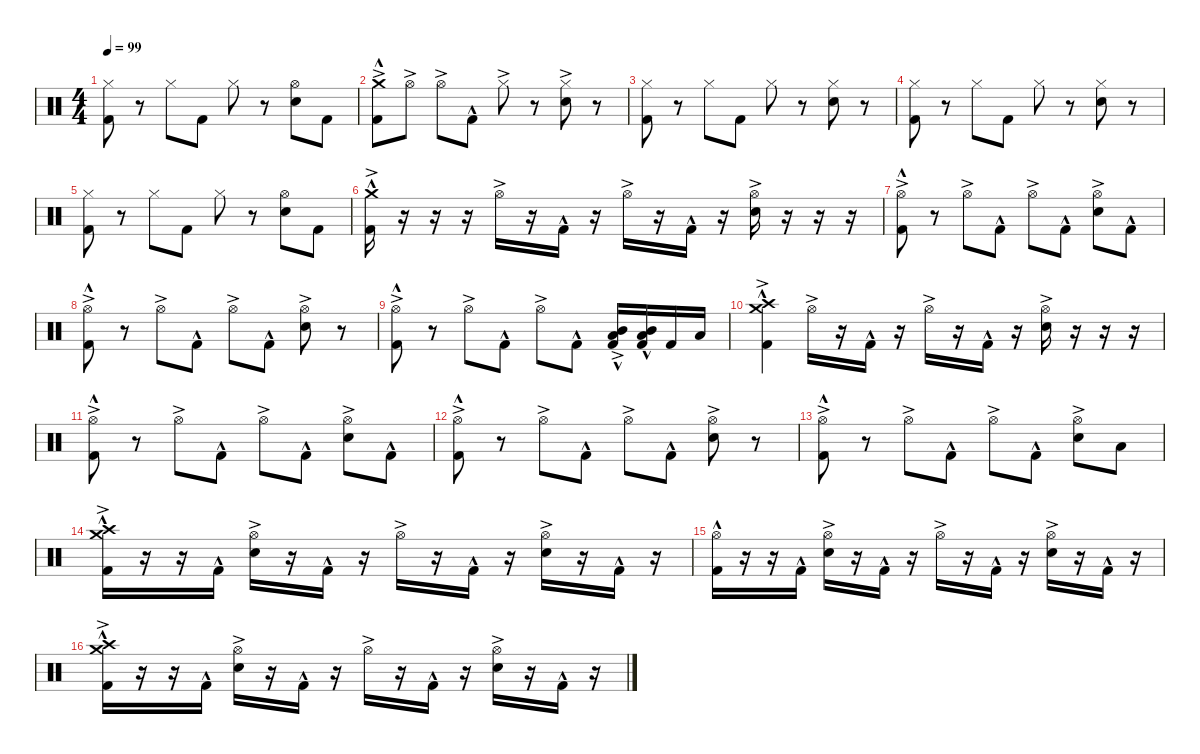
\defaultSystemsLayout 4
\hideDynamics
\bracketExtendMode nobrackets
\singleTrackTrackNamePolicy hidden
\multiTrackTrackNamePolicy hidden
\firstSystemTrackNameMode fullname
\firstSystemTrackNameOrientation horizontal
\otherSystemsTrackNameOrientation horizontal
\track ("Percussion" "drm.") {instrument percussion}
\staff {score}
\articulation defaults
\ts (4 4)
\tempo 99
\clef neutral
\ks c
("Hi-Hat (closed)" "Kick (hit) 2").8{dy f beam Down} r.8{beam Down} "Hi-Hat (closed)".8{beam Down} "Kick (hit) 2".8{beam Down} "Hi-Hat (closed)".8{beam Down} r.8{beam Down} ("Hi-Hat (open)" "Snare (hit) 2").8{beam Down} "Kick (hit) 2".8{beam Down} |
("Crash medium (hit)"{ac} "Kick (hit) 2"{hac}).8{beam Down} "Hi-Hat (open)"{ac}.8{beam Down} "Hi-Hat (open)"{ac}.8{beam Down} "Kick (hit) 2"{hac}.8{beam Down} "Hi-Hat (closed)"{ac}.8{beam Down} r.8{beam Down} ("Hi-Hat (closed)"{ac} "Snare (hit) 2"{ac}).8{beam Down} r.8{beam Down} |
("Hi-Hat (closed)" "Kick (hit) 2").8{beam Down} r.8{beam Down} "Hi-Hat (closed)".8{beam Down} "Kick (hit) 2".8{beam Down} "Hi-Hat (closed)".8{beam Down} r.8{beam Down} ("Hi-Hat (closed)" "Snare (hit) 2").8{beam Down} r.8{beam Down} |
("Hi-Hat (closed)" "Kick (hit) 2").8{beam Down} r.8{beam Down} "Hi-Hat (closed)".8{beam Down} "Kick (hit) 2".8{beam Down} "Hi-Hat (closed)".8{beam Down} r.8{beam Down} ("Hi-Hat (closed)" "Snare (hit) 2").8{beam Down} r.8{beam Down} |
("Hi-Hat (closed)" "Kick (hit) 2").8{beam Down} r.8{beam Down} "Hi-Hat (closed)".8{beam Down} "Kick (hit) 2".8{beam Down} "Hi-Hat (closed)".8{beam Down} r.8{beam Down} ("Hi-Hat (open)" "Snare (hit) 2").8{beam Down} "Kick (hit) 2".8{beam Down} |
("Crash medium (hit)"{hac} "Kick (hit) 2"{ac}).16{beam Down} r.16{beam Down} r.16{beam Down} r.16{beam Down} "Hi-Hat (open)"{ac}.16{beam Down} r.16{beam Down} "Kick (hit) 2"{hac}.16{beam Down} r.16{beam Down} "Hi-Hat (open)"{ac}.16{beam Down} r.16{beam Down} "Kick (hit) 2"{hac}.16{beam Down} r.16{beam Down} ("Hi-Hat (open)"{ac} "Snare (hit) 2"{ac}).16{beam Down} r.16{beam Down} r.16{beam Down} r.16{beam Down} |
("Hi-Hat (open)"{ac} "Kick (hit) 2"{hac}).8{beam Down} r.8{beam Down} "Hi-Hat (open)"{ac}.8{beam Down} "Kick (hit) 2"{hac}.8{beam Down} "Hi-Hat (open)"{ac}.8{beam Down} "Kick (hit) 2"{hac}.8{beam Down} ("Hi-Hat (open)"{ac} "Snare (hit) 2"{ac}).8{beam Down} "Kick (hit) 2"{hac}.8{beam Down} |
("Hi-Hat (open)"{ac} "Kick (hit) 2"{hac}).8{beam Down} r.8{beam Down} "Hi-Hat (open)"{ac}.8{beam Down} "Kick (hit) 2"{hac}.8{beam Down} "Hi-Hat (open)"{ac}.8{beam Down} "Kick (hit) 2"{hac}.8{beam Down} ("Hi-Hat (open)"{ac} "Snare (hit) 2"{ac}).8{beam Down} r.8{beam Down} |
("Hi-Hat (open)"{ac} "Kick (hit) 2"{hac}).8{beam Down} r.8{beam Down} "Hi-Hat (open)"{ac}.8{beam Down} "Kick (hit) 2"{hac}.8{beam Down} "Hi-Hat (open)"{ac}.8{beam Down} "Kick (hit) 2"{hac}.8{beam Down} ("Low Tom (hit)"{ac} "Mid Tom (hit)"{hac} "Kick (hit) 2").16{beam Up} ("Low Tom (hit)"{hac} "Mid Tom (hit)"{hac} "Kick (hit) 2").16{beam Up} "Kick (hit) 2".16{beam Up} "Low Tom (hit)".16{beam Up} |
("Crash medium (hit)"{hac} "Crash high (hit)"{hac} "Kick (hit) 2"{ac}).4{beam Down} "Hi-Hat (open)"{ac}.16{beam Down} r.16{beam Down} "Kick (hit) 2"{hac}.16{beam Down} r.16{beam Down} "Hi-Hat (open)"{ac}.16{beam Down} r.16{beam Down} "Kick (hit) 2"{hac}.16{beam Down} r.16{beam Down} ("Hi-Hat (open)"{ac} "Snare (hit) 2"{ac}).16{beam Down} r.16{beam Down} r.16{beam Down} r.16{beam Down} |
("Hi-Hat (open)"{ac} "Kick (hit) 2"{hac}).8{beam Down} r.8{beam Down} "Hi-Hat (open)"{ac}.8{beam Down} "Kick (hit) 2"{hac}.8{beam Down} "Hi-Hat (open)"{ac}.8{beam Down} "Kick (hit) 2"{hac}.8{beam Down} ("Hi-Hat (open)"{ac} "Snare (hit) 2"{ac}).8{beam Down} "Kick (hit) 2"{hac}.8{beam Down} |
("Hi-Hat (open)"{ac} "Kick (hit) 2"{hac}).8{beam Down} r.8{beam Down} "Hi-Hat (open)"{ac}.8{beam Down} "Kick (hit) 2"{hac}.8{beam Down} "Hi-Hat (open)"{ac}.8{beam Down} "Kick (hit) 2"{hac}.8{beam Down} ("Hi-Hat (open)"{ac} "Snare (hit) 2"{ac}).8{beam Down} r.8{beam Down} |
("Hi-Hat (open)"{ac} "Kick (hit) 2"{hac}).8{beam Down} r.8{beam Down} "Hi-Hat (open)"{ac}.8{beam Down} "Kick (hit) 2"{hac}.8{beam Down} "Hi-Hat (open)"{ac}.8{beam Down} "Kick (hit) 2"{hac}.8{beam Down} ("Hi-Hat (open)"{ac} "Snare (hit) 2"{ac}).8{beam Down} "Low Tom (hit)".8{beam Down} |
("Crash medium (hit)"{hac} "Crash high (hit)"{ac} "Kick (hit) 2"{hac}).16{beam Down} r.16{beam Down} r.16{beam Down} "Kick (hit) 2"{hac}.16{beam Down} ("Hi-Hat (open)"{ac} "Snare (hit) 2"{ac}).16{beam Down} r.16{beam Down} "Kick (hit) 2"{hac}.16{beam Down} r.16{beam Down} "Hi-Hat (open)"{ac}.16{beam Down} r.16{beam Down} "Kick (hit) 2"{hac}.16{beam Down} r.16{beam Down} ("Hi-Hat (open)"{ac} "Snare (hit) 2"{ac}).16{beam Down} r.16{beam Down} "Kick (hit) 2"{hac}.16{beam Down} r.16{beam Down} |
("Hi-Hat (open)"{hac} "Kick (hit) 2"{hac}).16{beam Down} r.16{beam Down} r.16{beam Down} "Kick (hit) 2"{hac}.16{beam Down} ("Hi-Hat (open)"{ac} "Snare (hit) 2"{ac}).16{beam Down} r.16{beam Down} "Kick (hit) 2"{hac}.16{beam Down} r.16{beam Down} "Hi-Hat (open)"{ac}.16{beam Down} r.16{beam Down} "Kick (hit) 2"{hac}.16{beam Down} r.16{beam Down} ("Hi-Hat (open)"{ac} "Snare (hit) 2"{ac}).16{beam Down} r.16{beam Down} "Kick (hit) 2"{hac}.16{beam Down} r.16{beam Down} |
("Crash medium (hit)"{hac} "Crash high (hit)"{ac} "Kick (hit) 2"{hac}).16{beam Down} r.16{beam Down} r.16{beam Down} "Kick (hit) 2"{hac}.16{beam Down} ("Hi-Hat (open)"{ac} "Snare (hit) 2"{ac}).16{beam Down} r.16{beam Down} "Kick (hit) 2"{hac}.16{beam Down} r.16{beam Down} "Hi-Hat (open)"{ac}.16{beam Down} r.16{beam Down} "Kick (hit) 2"{hac}.16{beam Down} r.16{beam Down} ("Hi-Hat (open)"{ac} "Snare (hit) 2"{ac}).16{beam Down} r.16{beam Down} "Kick (hit) 2"{hac}.16{beam Down} r.16{beam Down}
